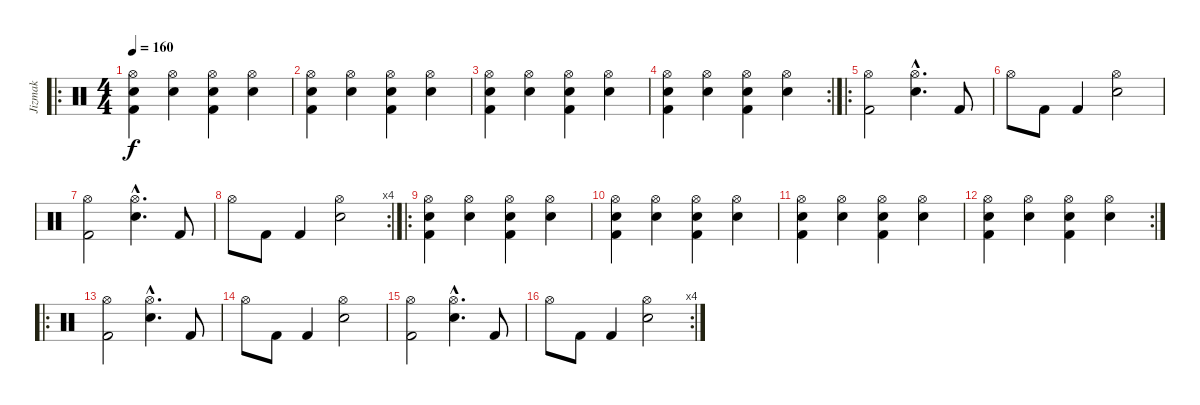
\track ("Jizmak" "Jizmak") {instrument percussion}
\staff {score}
\articulation defaults
\ro
\ts (4 4)
\tempo 160
\clef neutral
\ks c
("Hi-Hat (open)" "Snare (hit) 2" "Kick (hit) 2").4{dy f} ("Hi-Hat (open)" "Snare (hit) 2").4 ("Hi-Hat (open)" "Snare (hit) 2" "Kick (hit) 2").4 ("Hi-Hat (open)" "Snare (hit) 2").4 |
("Hi-Hat (open)" "Snare (hit) 2" "Kick (hit) 2").4 ("Hi-Hat (open)" "Snare (hit) 2").4 ("Hi-Hat (open)" "Snare (hit) 2" "Kick (hit) 2").4 ("Hi-Hat (open)" "Snare (hit) 2").4 |
("Hi-Hat (open)" "Snare (hit) 2" "Kick (hit) 2").4 ("Hi-Hat (open)" "Snare (hit) 2").4 ("Hi-Hat (open)" "Snare (hit) 2" "Kick (hit) 2").4 ("Hi-Hat (open)" "Snare (hit) 2").4 |
\rc 2
("Hi-Hat (open)" "Snare (hit) 2" "Kick (hit) 2").4 ("Hi-Hat (open)" "Snare (hit) 2").4 ("Hi-Hat (open)" "Snare (hit) 2" "Kick (hit) 2").4 ("Hi-Hat (open)" "Snare (hit) 2").4 |
\ro
("Hi-Hat (open)" "Kick (hit) 2").2 ("Hi-Hat (open)"{hac} "Snare (hit) 2"{hac}).4{d} "Kick (hit) 2".8 |
"Hi-Hat (open)".8 "Kick (hit) 2".8 "Kick (hit) 2".4 ("Hi-Hat (open)" "Snare (hit) 2").2 |
("Hi-Hat (open)" "Kick (hit) 2").2 ("Hi-Hat (open)"{hac} "Snare (hit) 2"{hac}).4{d} "Kick (hit) 2".8 |
\rc 4 "Hi-Hat (open)".8 "Kick (hit) 2".8 "Kick (hit) 2".4
("Hi-Hat (open)" "Snare (hit) 2").2 |
\ro
("Hi-Hat (open)" "Snare (hit) 2" "Kick (hit) 2").4 ("Hi-Hat (open)" "Snare (hit) 2").4 ("Hi-Hat (open)" "Snare (hit) 2" "Kick (hit) 2").4 ("Hi-Hat (open)" "Snare (hit) 2").4 |
("Hi-Hat (open)" "Snare (hit) 2" "Kick (hit) 2").4 ("Hi-Hat (open)" "Snare (hit) 2").4 ("Hi-Hat (open)" "Snare (hit) 2" "Kick (hit) 2").4 ("Hi-Hat (open)" "Snare (hit) 2").4 |
("Hi-Hat (open)" "Snare (hit) 2" "Kick (hit) 2").4 ("Hi-Hat (open)" "Snare (hit) 2").4 ("Hi-Hat (open)" "Snare (hit) 2" "Kick (hit) 2").4 ("Hi-Hat (open)" "Snare (hit) 2").4 |
\rc 2
("Hi-Hat (open)" "Snare (hit) 2" "Kick (hit) 2").4 ("Hi-Hat (open)" "Snare (hit) 2").4 ("Hi-Hat (open)" "Snare (hit) 2" "Kick (hit) 2").4 ("Hi-Hat (open)" "Snare (hit) 2").4 |
\ro
("Hi-Hat (open)" "Kick (hit) 2").2 ("Hi-Hat (open)"{hac} "Snare (hit) 2"{hac}).4{d} "Kick (hit) 2".8 |
"Hi-Hat (open)".8 "Kick (hit) 2".8 "Kick (hit) 2".4 ("Hi-Hat (open)" "Snare (hit) 2").2 |
("Hi-Hat (open)" "Kick (hit) 2").2 ("Hi-Hat (open)"{hac} "Snare (hit) 2"{hac}).4{d} "Kick (hit) 2".8 |
\rc 4 "Hi-Hat (open)".8 "Kick (hit) 2".8 "Kick (hit) 2".4
("Hi-Hat (open)" "Snare (hit) 2").2
